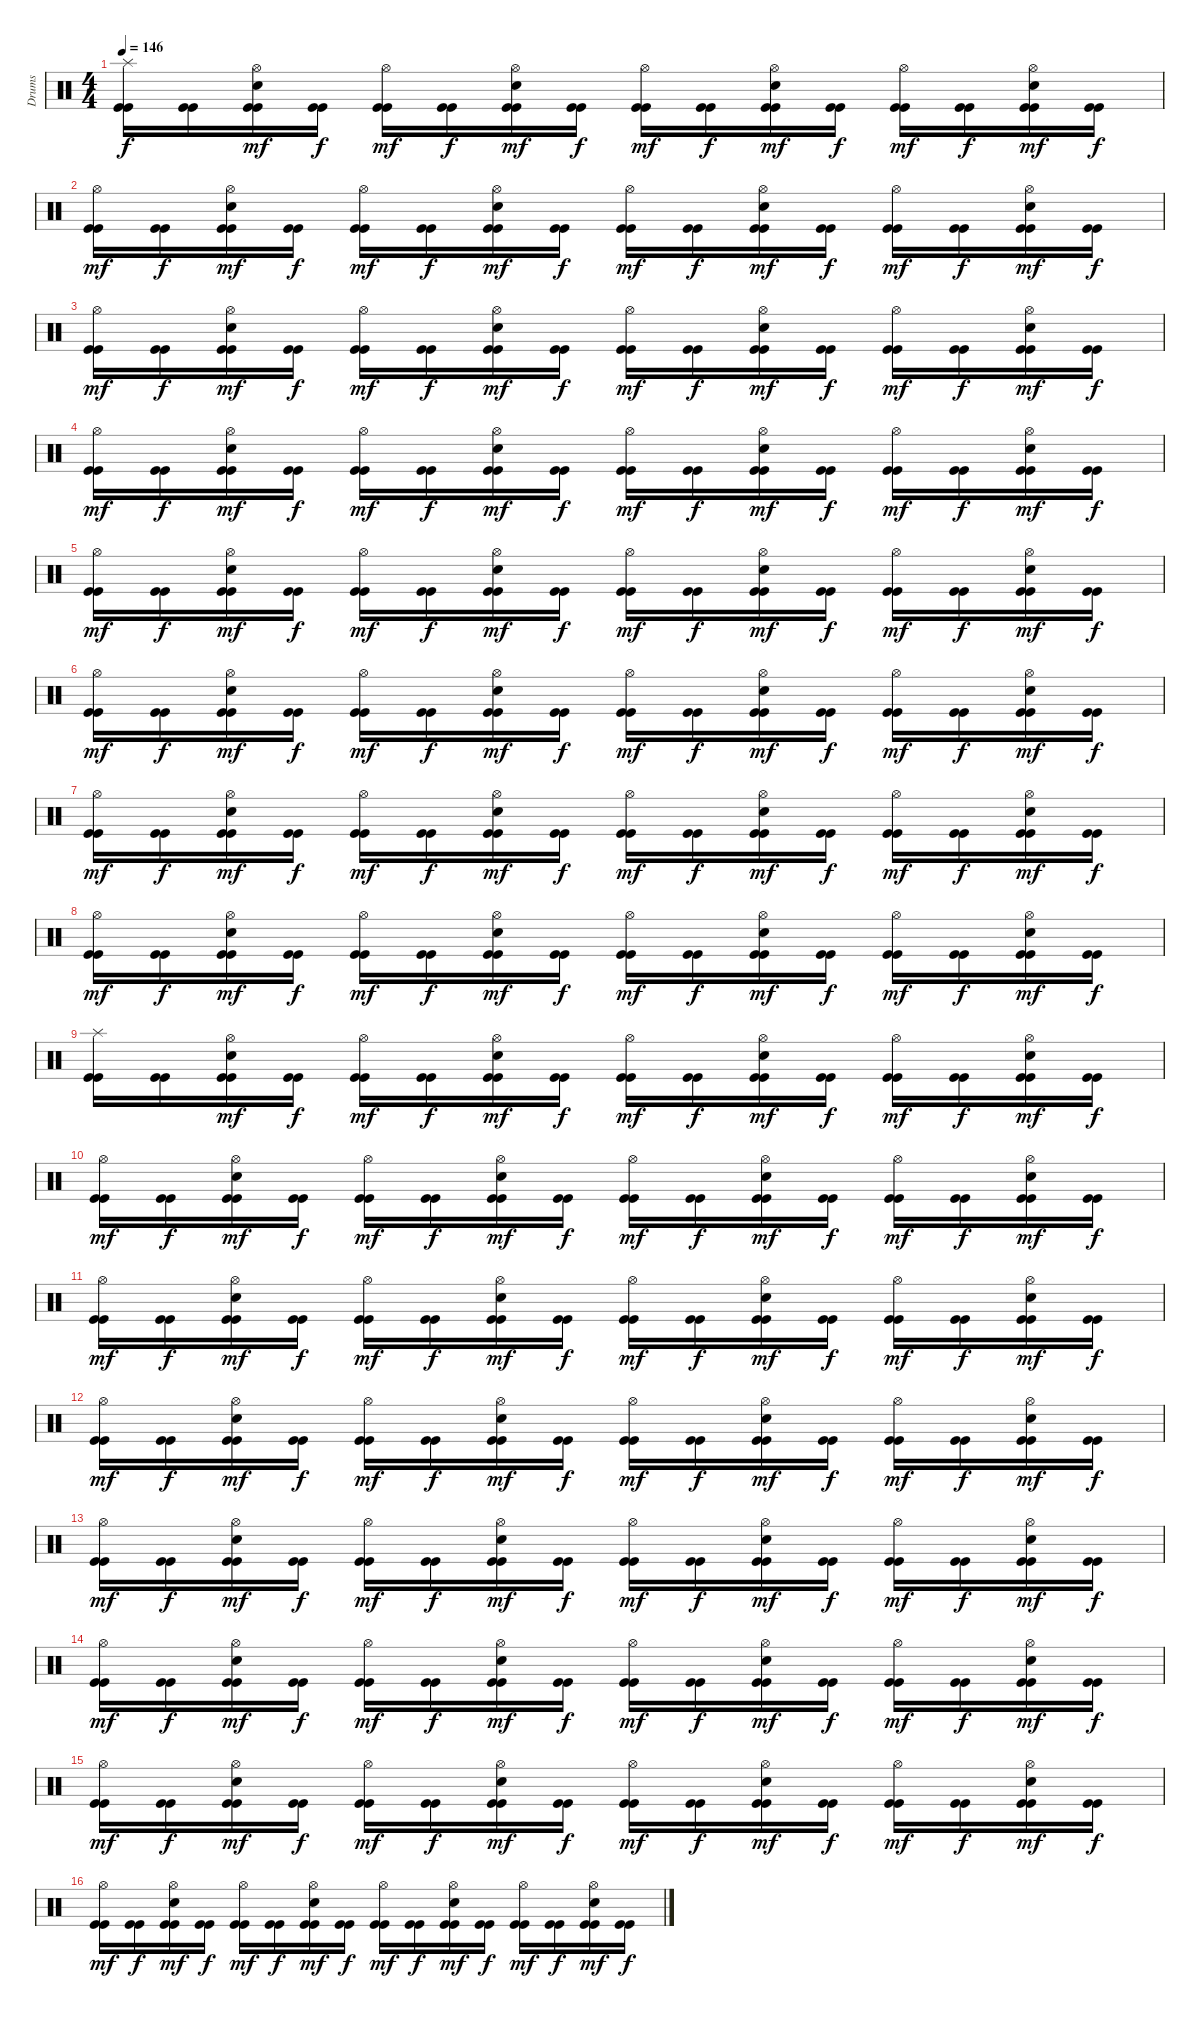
\track ("Drums" "Drums") {instrument percussion}
\staff {score}
\articulation defaults
\ts (4 4)
\tempo 146
\clef neutral
\ks c
("Splash (hit)" "Kick (hit)" "Kick (hit)").16{dy f} ("Kick (hit)" "Kick (hit)").16 ("Hi-Hat (open)" "Electric Snare (hit)" "Kick (hit)" "Kick (hit)").16{dy mf} ("Kick (hit)" "Kick (hit)").16{dy f} ("Hi-Hat (open)" "Kick (hit)" "Kick (hit)").16{dy mf} ("Kick (hit)" "Kick (hit)").16{dy f} ("Hi-Hat (open)" "Electric Snare (hit)" "Kick (hit)" "Kick (hit)").16{dy mf} ("Kick (hit)" "Kick (hit)").16{dy f} ("Hi-Hat (open)" "Kick (hit)" "Kick (hit)").16{dy mf} ("Kick (hit)" "Kick (hit)").16{dy f} ("Hi-Hat (open)" "Electric Snare (hit)" "Kick (hit)" "Kick (hit)").16{dy mf} ("Kick (hit)" "Kick (hit)").16{dy f} ("Hi-Hat (open)" "Kick (hit)" "Kick (hit)").16{dy mf} ("Kick (hit)" "Kick (hit)").16{dy f} ("Hi-Hat (open)" "Electric Snare (hit)" "Kick (hit)" "Kick (hit)").16{dy mf} ("Kick (hit)" "Kick (hit)").16{dy f} |
("Hi-Hat (open)" "Kick (hit)" "Kick (hit)").16{dy mf} ("Kick (hit)" "Kick (hit)").16{dy f} ("Hi-Hat (open)" "Electric Snare (hit)" "Kick (hit)" "Kick (hit)").16{dy mf} ("Kick (hit)" "Kick (hit)").16{dy f} ("Hi-Hat (open)" "Kick (hit)" "Kick (hit)").16{dy mf} ("Kick (hit)" "Kick (hit)").16{dy f} ("Hi-Hat (open)" "Electric Snare (hit)" "Kick (hit)" "Kick (hit)").16{dy mf} ("Kick (hit)" "Kick (hit)").16{dy f} ("Hi-Hat (open)" "Kick (hit)" "Kick (hit)").16{dy mf} ("Kick (hit)" "Kick (hit)").16{dy f} ("Hi-Hat (open)" "Electric Snare (hit)" "Kick (hit)" "Kick (hit)").16{dy mf} ("Kick (hit)" "Kick (hit)").16{dy f} ("Hi-Hat (open)" "Kick (hit)" "Kick (hit)").16{dy mf} ("Kick (hit)" "Kick (hit)").16{dy f} ("Hi-Hat (open)" "Electric Snare (hit)" "Kick (hit)" "Kick (hit)").16{dy mf} ("Kick (hit)" "Kick (hit)").16{dy f} |
("Hi-Hat (open)" "Kick (hit)" "Kick (hit)").16{dy mf} ("Kick (hit)" "Kick (hit)").16{dy f} ("Hi-Hat (open)" "Electric Snare (hit)" "Kick (hit)" "Kick (hit)").16{dy mf} ("Kick (hit)" "Kick (hit)").16{dy f} ("Hi-Hat (open)" "Kick (hit)" "Kick (hit)").16{dy mf} ("Kick (hit)" "Kick (hit)").16{dy f} ("Hi-Hat (open)" "Electric Snare (hit)" "Kick (hit)" "Kick (hit)").16{dy mf} ("Kick (hit)" "Kick (hit)").16{dy f} ("Hi-Hat (open)" "Kick (hit)" "Kick (hit)").16{dy mf} ("Kick (hit)" "Kick (hit)").16{dy f} ("Hi-Hat (open)" "Electric Snare (hit)" "Kick (hit)" "Kick (hit)").16{dy mf} ("Kick (hit)" "Kick (hit)").16{dy f} ("Hi-Hat (open)" "Kick (hit)" "Kick (hit)").16{dy mf} ("Kick (hit)" "Kick (hit)").16{dy f} ("Hi-Hat (open)" "Electric Snare (hit)" "Kick (hit)" "Kick (hit)").16{dy mf} ("Kick (hit)" "Kick (hit)").16{dy f} |
("Hi-Hat (open)" "Kick (hit)" "Kick (hit)").16{dy mf} ("Kick (hit)" "Kick (hit)").16{dy f} ("Hi-Hat (open)" "Electric Snare (hit)" "Kick (hit)" "Kick (hit)").16{dy mf} ("Kick (hit)" "Kick (hit)").16{dy f} ("Hi-Hat (open)" "Kick (hit)" "Kick (hit)").16{dy mf} ("Kick (hit)" "Kick (hit)").16{dy f} ("Hi-Hat (open)" "Electric Snare (hit)" "Kick (hit)" "Kick (hit)").16{dy mf} ("Kick (hit)" "Kick (hit)").16{dy f} ("Hi-Hat (open)" "Kick (hit)" "Kick (hit)").16{dy mf} ("Kick (hit)" "Kick (hit)").16{dy f} ("Hi-Hat (open)" "Electric Snare (hit)" "Kick (hit)" "Kick (hit)").16{dy mf} ("Kick (hit)" "Kick (hit)").16{dy f} ("Hi-Hat (open)" "Kick (hit)" "Kick (hit)").16{dy mf} ("Kick (hit)" "Kick (hit)").16{dy f} ("Hi-Hat (open)" "Electric Snare (hit)" "Kick (hit)" "Kick (hit)").16{dy mf} ("Kick (hit)" "Kick (hit)").16{dy f} |
("Hi-Hat (open)" "Kick (hit)" "Kick (hit)").16{dy mf} ("Kick (hit)" "Kick (hit)").16{dy f} ("Hi-Hat (open)" "Electric Snare (hit)" "Kick (hit)" "Kick (hit)").16{dy mf} ("Kick (hit)" "Kick (hit)").16{dy f} ("Hi-Hat (open)" "Kick (hit)" "Kick (hit)").16{dy mf} ("Kick (hit)" "Kick (hit)").16{dy f} ("Hi-Hat (open)" "Electric Snare (hit)" "Kick (hit)" "Kick (hit)").16{dy mf} ("Kick (hit)" "Kick (hit)").16{dy f} ("Hi-Hat (open)" "Kick (hit)" "Kick (hit)").16{dy mf} ("Kick (hit)" "Kick (hit)").16{dy f} ("Hi-Hat (open)" "Electric Snare (hit)" "Kick (hit)" "Kick (hit)").16{dy mf} ("Kick (hit)" "Kick (hit)").16{dy f} ("Hi-Hat (open)" "Kick (hit)" "Kick (hit)").16{dy mf} ("Kick (hit)" "Kick (hit)").16{dy f} ("Hi-Hat (open)" "Electric Snare (hit)" "Kick (hit)" "Kick (hit)").16{dy mf} ("Kick (hit)" "Kick (hit)").16{dy f} |
("Hi-Hat (open)" "Kick (hit)" "Kick (hit)").16{dy mf} ("Kick (hit)" "Kick (hit)").16{dy f} ("Hi-Hat (open)" "Electric Snare (hit)" "Kick (hit)" "Kick (hit)").16{dy mf} ("Kick (hit)" "Kick (hit)").16{dy f} ("Hi-Hat (open)" "Kick (hit)" "Kick (hit)").16{dy mf} ("Kick (hit)" "Kick (hit)").16{dy f} ("Hi-Hat (open)" "Electric Snare (hit)" "Kick (hit)" "Kick (hit)").16{dy mf} ("Kick (hit)" "Kick (hit)").16{dy f} ("Hi-Hat (open)" "Kick (hit)" "Kick (hit)").16{dy mf} ("Kick (hit)" "Kick (hit)").16{dy f} ("Hi-Hat (open)" "Electric Snare (hit)" "Kick (hit)" "Kick (hit)").16{dy mf} ("Kick (hit)" "Kick (hit)").16{dy f} ("Hi-Hat (open)" "Kick (hit)" "Kick (hit)").16{dy mf} ("Kick (hit)" "Kick (hit)").16{dy f} ("Hi-Hat (open)" "Electric Snare (hit)" "Kick (hit)" "Kick (hit)").16{dy mf} ("Kick (hit)" "Kick (hit)").16{dy f} |
("Hi-Hat (open)" "Kick (hit)" "Kick (hit)").16{dy mf} ("Kick (hit)" "Kick (hit)").16{dy f} ("Hi-Hat (open)" "Electric Snare (hit)" "Kick (hit)" "Kick (hit)").16{dy mf} ("Kick (hit)" "Kick (hit)").16{dy f} ("Hi-Hat (open)" "Kick (hit)" "Kick (hit)").16{dy mf} ("Kick (hit)" "Kick (hit)").16{dy f} ("Hi-Hat (open)" "Electric Snare (hit)" "Kick (hit)" "Kick (hit)").16{dy mf} ("Kick (hit)" "Kick (hit)").16{dy f} ("Hi-Hat (open)" "Kick (hit)" "Kick (hit)").16{dy mf} ("Kick (hit)" "Kick (hit)").16{dy f} ("Hi-Hat (open)" "Electric Snare (hit)" "Kick (hit)" "Kick (hit)").16{dy mf} ("Kick (hit)" "Kick (hit)").16{dy f} ("Hi-Hat (open)" "Kick (hit)" "Kick (hit)").16{dy mf} ("Kick (hit)" "Kick (hit)").16{dy f} ("Hi-Hat (open)" "Electric Snare (hit)" "Kick (hit)" "Kick (hit)").16{dy mf} ("Kick (hit)" "Kick (hit)").16{dy f} |
("Hi-Hat (open)" "Kick (hit)" "Kick (hit)").16{dy mf} ("Kick (hit)" "Kick (hit)").16{dy f} ("Hi-Hat (open)" "Electric Snare (hit)" "Kick (hit)" "Kick (hit)").16{dy mf} ("Kick (hit)" "Kick (hit)").16{dy f} ("Hi-Hat (open)" "Kick (hit)" "Kick (hit)").16{dy mf} ("Kick (hit)" "Kick (hit)").16{dy f} ("Hi-Hat (open)" "Electric Snare (hit)" "Kick (hit)" "Kick (hit)").16{dy mf} ("Kick (hit)" "Kick (hit)").16{dy f} ("Hi-Hat (open)" "Kick (hit)" "Kick (hit)").16{dy mf} ("Kick (hit)" "Kick (hit)").16{dy f} ("Hi-Hat (open)" "Electric Snare (hit)" "Kick (hit)" "Kick (hit)").16{dy mf} ("Kick (hit)" "Kick (hit)").16{dy f} ("Hi-Hat (open)" "Kick (hit)" "Kick (hit)").16{dy mf} ("Kick (hit)" "Kick (hit)").16{dy f} ("Hi-Hat (open)" "Electric Snare (hit)" "Kick (hit)" "Kick (hit)").16{dy mf} ("Kick (hit)" "Kick (hit)").16{dy f} |
("Splash (hit)" "Kick (hit)" "Kick (hit)").16 ("Kick (hit)" "Kick (hit)").16 ("Hi-Hat (open)" "Electric Snare (hit)" "Kick (hit)" "Kick (hit)").16{dy mf} ("Kick (hit)" "Kick (hit)").16{dy f} ("Hi-Hat (open)" "Kick (hit)" "Kick (hit)").16{dy mf} ("Kick (hit)" "Kick (hit)").16{dy f} ("Hi-Hat (open)" "Electric Snare (hit)" "Kick (hit)" "Kick (hit)").16{dy mf} ("Kick (hit)" "Kick (hit)").16{dy f} ("Hi-Hat (open)" "Kick (hit)" "Kick (hit)").16{dy mf} ("Kick (hit)" "Kick (hit)").16{dy f} ("Hi-Hat (open)" "Electric Snare (hit)" "Kick (hit)" "Kick (hit)").16{dy mf} ("Kick (hit)" "Kick (hit)").16{dy f} ("Hi-Hat (open)" "Kick (hit)" "Kick (hit)").16{dy mf} ("Kick (hit)" "Kick (hit)").16{dy f} ("Hi-Hat (open)" "Electric Snare (hit)" "Kick (hit)" "Kick (hit)").16{dy mf} ("Kick (hit)" "Kick (hit)").16{dy f} |
("Hi-Hat (open)" "Kick (hit)" "Kick (hit)").16{dy mf} ("Kick (hit)" "Kick (hit)").16{dy f} ("Hi-Hat (open)" "Electric Snare (hit)" "Kick (hit)" "Kick (hit)").16{dy mf} ("Kick (hit)" "Kick (hit)").16{dy f} ("Hi-Hat (open)" "Kick (hit)" "Kick (hit)").16{dy mf} ("Kick (hit)" "Kick (hit)").16{dy f} ("Hi-Hat (open)" "Electric Snare (hit)" "Kick (hit)" "Kick (hit)").16{dy mf} ("Kick (hit)" "Kick (hit)").16{dy f} ("Hi-Hat (open)" "Kick (hit)" "Kick (hit)").16{dy mf} ("Kick (hit)" "Kick (hit)").16{dy f} ("Hi-Hat (open)" "Electric Snare (hit)" "Kick (hit)" "Kick (hit)").16{dy mf} ("Kick (hit)" "Kick (hit)").16{dy f} ("Hi-Hat (open)" "Kick (hit)" "Kick (hit)").16{dy mf} ("Kick (hit)" "Kick (hit)").16{dy f} ("Hi-Hat (open)" "Electric Snare (hit)" "Kick (hit)" "Kick (hit)").16{dy mf} ("Kick (hit)" "Kick (hit)").16{dy f} |
("Hi-Hat (open)" "Kick (hit)" "Kick (hit)").16{dy mf} ("Kick (hit)" "Kick (hit)").16{dy f} ("Hi-Hat (open)" "Electric Snare (hit)" "Kick (hit)" "Kick (hit)").16{dy mf} ("Kick (hit)" "Kick (hit)").16{dy f} ("Hi-Hat (open)" "Kick (hit)" "Kick (hit)").16{dy mf} ("Kick (hit)" "Kick (hit)").16{dy f} ("Hi-Hat (open)" "Electric Snare (hit)" "Kick (hit)" "Kick (hit)").16{dy mf} ("Kick (hit)" "Kick (hit)").16{dy f} ("Hi-Hat (open)" "Kick (hit)" "Kick (hit)").16{dy mf} ("Kick (hit)" "Kick (hit)").16{dy f} ("Hi-Hat (open)" "Electric Snare (hit)" "Kick (hit)" "Kick (hit)").16{dy mf} ("Kick (hit)" "Kick (hit)").16{dy f} ("Hi-Hat (open)" "Kick (hit)" "Kick (hit)").16{dy mf} ("Kick (hit)" "Kick (hit)").16{dy f} ("Hi-Hat (open)" "Electric Snare (hit)" "Kick (hit)" "Kick (hit)").16{dy mf} ("Kick (hit)" "Kick (hit)").16{dy f} |
("Hi-Hat (open)" "Kick (hit)" "Kick (hit)").16{dy mf} ("Kick (hit)" "Kick (hit)").16{dy f} ("Hi-Hat (open)" "Electric Snare (hit)" "Kick (hit)" "Kick (hit)").16{dy mf} ("Kick (hit)" "Kick (hit)").16{dy f} ("Hi-Hat (open)" "Kick (hit)" "Kick (hit)").16{dy mf} ("Kick (hit)" "Kick (hit)").16{dy f} ("Hi-Hat (open)" "Electric Snare (hit)" "Kick (hit)" "Kick (hit)").16{dy mf} ("Kick (hit)" "Kick (hit)").16{dy f} ("Hi-Hat (open)" "Kick (hit)" "Kick (hit)").16{dy mf} ("Kick (hit)" "Kick (hit)").16{dy f} ("Hi-Hat (open)" "Electric Snare (hit)" "Kick (hit)" "Kick (hit)").16{dy mf} ("Kick (hit)" "Kick (hit)").16{dy f} ("Hi-Hat (open)" "Kick (hit)" "Kick (hit)").16{dy mf} ("Kick (hit)" "Kick (hit)").16{dy f} ("Hi-Hat (open)" "Electric Snare (hit)" "Kick (hit)" "Kick (hit)").16{dy mf} ("Kick (hit)" "Kick (hit)").16{dy f} |
("Hi-Hat (open)" "Kick (hit)" "Kick (hit)").16{dy mf} ("Kick (hit)" "Kick (hit)").16{dy f} ("Hi-Hat (open)" "Electric Snare (hit)" "Kick (hit)" "Kick (hit)").16{dy mf} ("Kick (hit)" "Kick (hit)").16{dy f} ("Hi-Hat (open)" "Kick (hit)" "Kick (hit)").16{dy mf} ("Kick (hit)" "Kick (hit)").16{dy f} ("Hi-Hat (open)" "Electric Snare (hit)" "Kick (hit)" "Kick (hit)").16{dy mf} ("Kick (hit)" "Kick (hit)").16{dy f} ("Hi-Hat (open)" "Kick (hit)" "Kick (hit)").16{dy mf} ("Kick (hit)" "Kick (hit)").16{dy f} ("Hi-Hat (open)" "Electric Snare (hit)" "Kick (hit)" "Kick (hit)").16{dy mf} ("Kick (hit)" "Kick (hit)").16{dy f} ("Hi-Hat (open)" "Kick (hit)" "Kick (hit)").16{dy mf} ("Kick (hit)" "Kick (hit)").16{dy f} ("Hi-Hat (open)" "Electric Snare (hit)" "Kick (hit)" "Kick (hit)").16{dy mf} ("Kick (hit)" "Kick (hit)").16{dy f} |
("Hi-Hat (open)" "Kick (hit)" "Kick (hit)").16{dy mf} ("Kick (hit)" "Kick (hit)").16{dy f} ("Hi-Hat (open)" "Electric Snare (hit)" "Kick (hit)" "Kick (hit)").16{dy mf} ("Kick (hit)" "Kick (hit)").16{dy f} ("Hi-Hat (open)" "Kick (hit)" "Kick (hit)").16{dy mf} ("Kick (hit)" "Kick (hit)").16{dy f} ("Hi-Hat (open)" "Electric Snare (hit)" "Kick (hit)" "Kick (hit)").16{dy mf} ("Kick (hit)" "Kick (hit)").16{dy f} ("Hi-Hat (open)" "Kick (hit)" "Kick (hit)").16{dy mf} ("Kick (hit)" "Kick (hit)").16{dy f} ("Hi-Hat (open)" "Electric Snare (hit)" "Kick (hit)" "Kick (hit)").16{dy mf} ("Kick (hit)" "Kick (hit)").16{dy f} ("Hi-Hat (open)" "Kick (hit)" "Kick (hit)").16{dy mf} ("Kick (hit)" "Kick (hit)").16{dy f} ("Hi-Hat (open)" "Electric Snare (hit)" "Kick (hit)" "Kick (hit)").16{dy mf} ("Kick (hit)" "Kick (hit)").16{dy f} |
("Hi-Hat (open)" "Kick (hit)" "Kick (hit)").16{dy mf} ("Kick (hit)" "Kick (hit)").16{dy f} ("Hi-Hat (open)" "Electric Snare (hit)" "Kick (hit)" "Kick (hit)").16{dy mf} ("Kick (hit)" "Kick (hit)").16{dy f} ("Hi-Hat (open)" "Kick (hit)" "Kick (hit)").16{dy mf} ("Kick (hit)" "Kick (hit)").16{dy f} ("Hi-Hat (open)" "Electric Snare (hit)" "Kick (hit)" "Kick (hit)").16{dy mf} ("Kick (hit)" "Kick (hit)").16{dy f} ("Hi-Hat (open)" "Kick (hit)" "Kick (hit)").16{dy mf} ("Kick (hit)" "Kick (hit)").16{dy f} ("Hi-Hat (open)" "Electric Snare (hit)" "Kick (hit)" "Kick (hit)").16{dy mf} ("Kick (hit)" "Kick (hit)").16{dy f} ("Hi-Hat (open)" "Kick (hit)" "Kick (hit)").16{dy mf} ("Kick (hit)" "Kick (hit)").16{dy f} ("Hi-Hat (open)" "Electric Snare (hit)" "Kick (hit)" "Kick (hit)").16{dy mf} ("Kick (hit)" "Kick (hit)").16{dy f} |
("Hi-Hat (open)" "Kick (hit)" "Kick (hit)").16{dy mf} ("Kick (hit)" "Kick (hit)").16{dy f} ("Hi-Hat (open)" "Electric Snare (hit)" "Kick (hit)" "Kick (hit)").16{dy mf} ("Kick (hit)" "Kick (hit)").16{dy f} ("Hi-Hat (open)" "Kick (hit)" "Kick (hit)").16{dy mf} ("Kick (hit)" "Kick (hit)").16{dy f} ("Hi-Hat (open)" "Electric Snare (hit)" "Kick (hit)" "Kick (hit)").16{dy mf} ("Kick (hit)" "Kick (hit)").16{dy f} ("Hi-Hat (open)" "Kick (hit)" "Kick (hit)").16{dy mf} ("Kick (hit)" "Kick (hit)").16{dy f} ("Hi-Hat (open)" "Electric Snare (hit)" "Kick (hit)" "Kick (hit)").16{dy mf} ("Kick (hit)" "Kick (hit)").16{dy f} ("Hi-Hat (open)" "Kick (hit)" "Kick (hit)").16{dy mf} ("Kick (hit)" "Kick (hit)").16{dy f} ("Hi-Hat (open)" "Electric Snare (hit)" "Kick (hit)" "Kick (hit)").16{dy mf} ("Kick (hit)" "Kick (hit)").16{dy f}
